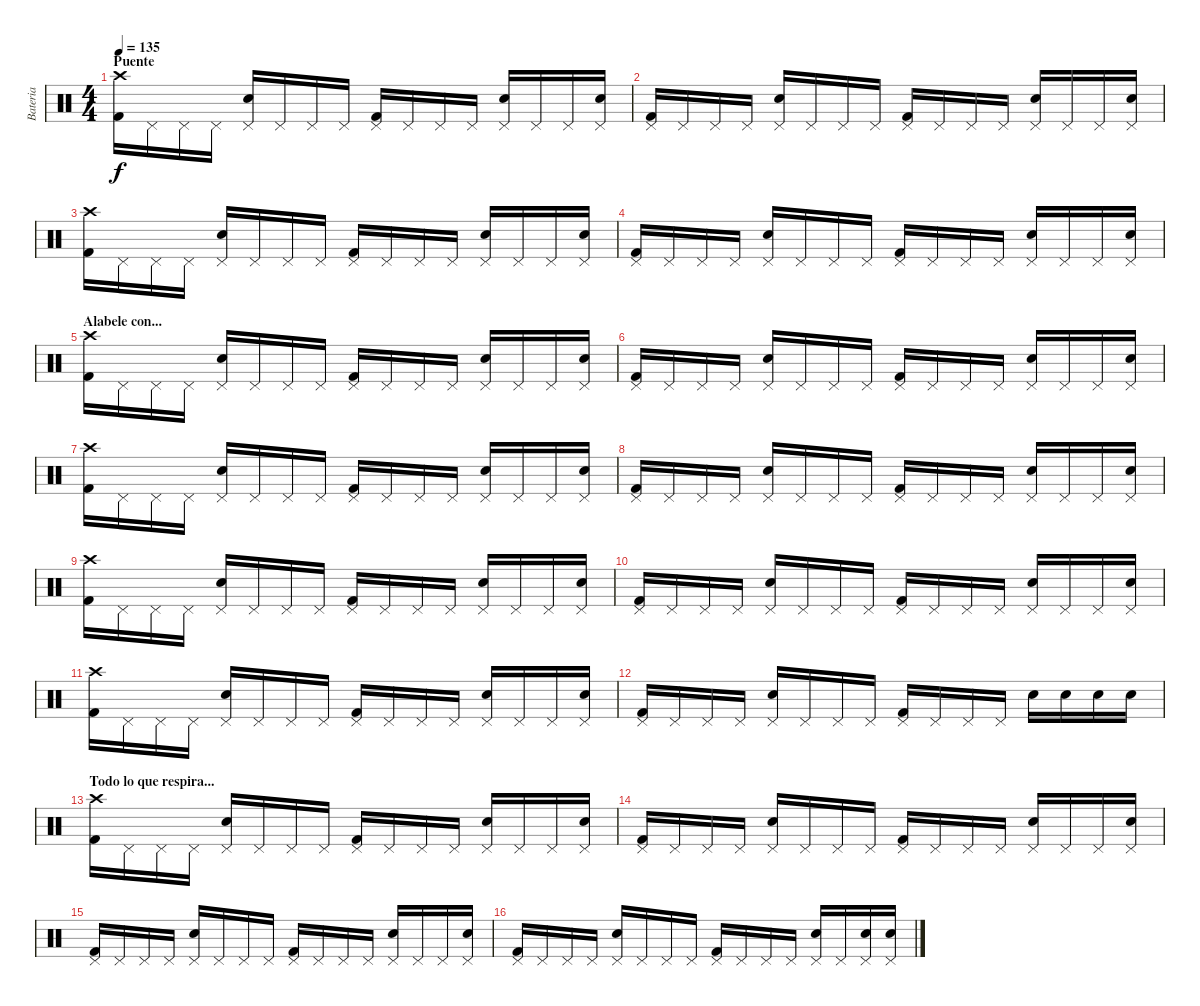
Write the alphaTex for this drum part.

\track ("Bateria" "Bateria") {instrument percussion}
\staff {score}
\articulation defaults
\ts (4 4)
\section ("" "Puente")
\tempo 135
\clef neutral
\ks c
("Crash high (hit)" "Kick (hit) 2").16{dy f} "Pedal Hi-Hat (hit)".16 "Pedal Hi-Hat (hit)".16 "Pedal Hi-Hat (hit)".16 ("Pedal Hi-Hat (hit)" "Electric Snare (hit)").16 "Pedal Hi-Hat (hit)".16 "Pedal Hi-Hat (hit)".16 "Pedal Hi-Hat (hit)".16 ("Pedal Hi-Hat (hit)" "Kick (hit) 2").16 "Pedal Hi-Hat (hit)".16 "Pedal Hi-Hat (hit)".16 "Pedal Hi-Hat (hit)".16 ("Pedal Hi-Hat (hit)" "Electric Snare (hit)").16 "Pedal Hi-Hat (hit)".16 "Pedal Hi-Hat (hit)".16 ("Pedal Hi-Hat (hit)" "Electric Snare (hit)").16 |
("Pedal Hi-Hat (hit)" "Kick (hit) 2").16 "Pedal Hi-Hat (hit)".16 "Pedal Hi-Hat (hit)".16 "Pedal Hi-Hat (hit)".16 ("Pedal Hi-Hat (hit)" "Electric Snare (hit)").16 "Pedal Hi-Hat (hit)".16 "Pedal Hi-Hat (hit)".16 "Pedal Hi-Hat (hit)".16 ("Pedal Hi-Hat (hit)" "Kick (hit) 2").16 "Pedal Hi-Hat (hit)".16 "Pedal Hi-Hat (hit)".16 "Pedal Hi-Hat (hit)".16 ("Pedal Hi-Hat (hit)" "Electric Snare (hit)").16 "Pedal Hi-Hat (hit)".16 "Pedal Hi-Hat (hit)".16 ("Pedal Hi-Hat (hit)" "Electric Snare (hit)").16 |
("Crash high (hit)" "Kick (hit) 2").16 "Pedal Hi-Hat (hit)".16 "Pedal Hi-Hat (hit)".16 "Pedal Hi-Hat (hit)".16 ("Pedal Hi-Hat (hit)" "Electric Snare (hit)").16 "Pedal Hi-Hat (hit)".16 "Pedal Hi-Hat (hit)".16 "Pedal Hi-Hat (hit)".16 ("Pedal Hi-Hat (hit)" "Kick (hit) 2").16 "Pedal Hi-Hat (hit)".16 "Pedal Hi-Hat (hit)".16 "Pedal Hi-Hat (hit)".16 ("Pedal Hi-Hat (hit)" "Electric Snare (hit)").16 "Pedal Hi-Hat (hit)".16 "Pedal Hi-Hat (hit)".16 ("Pedal Hi-Hat (hit)" "Electric Snare (hit)").16 |
("Pedal Hi-Hat (hit)" "Kick (hit) 2").16 "Pedal Hi-Hat (hit)".16 "Pedal Hi-Hat (hit)".16 "Pedal Hi-Hat (hit)".16 ("Pedal Hi-Hat (hit)" "Electric Snare (hit)").16 "Pedal Hi-Hat (hit)".16 "Pedal Hi-Hat (hit)".16 "Pedal Hi-Hat (hit)".16 ("Pedal Hi-Hat (hit)" "Kick (hit) 2").16 "Pedal Hi-Hat (hit)".16 "Pedal Hi-Hat (hit)".16 "Pedal Hi-Hat (hit)".16 ("Pedal Hi-Hat (hit)" "Electric Snare (hit)").16 "Pedal Hi-Hat (hit)".16 "Pedal Hi-Hat (hit)".16 ("Pedal Hi-Hat (hit)" "Electric Snare (hit)").16 |
\section ("" "Alabele con...")
("Crash high (hit)" "Kick (hit) 2").16 "Pedal Hi-Hat (hit)".16 "Pedal Hi-Hat (hit)".16 "Pedal Hi-Hat (hit)".16 ("Pedal Hi-Hat (hit)" "Electric Snare (hit)").16 "Pedal Hi-Hat (hit)".16 "Pedal Hi-Hat (hit)".16 "Pedal Hi-Hat (hit)".16 ("Pedal Hi-Hat (hit)" "Kick (hit) 2").16 "Pedal Hi-Hat (hit)".16 "Pedal Hi-Hat (hit)".16 "Pedal Hi-Hat (hit)".16 ("Pedal Hi-Hat (hit)" "Electric Snare (hit)").16 "Pedal Hi-Hat (hit)".16 "Pedal Hi-Hat (hit)".16 ("Pedal Hi-Hat (hit)" "Electric Snare (hit)").16 |
("Pedal Hi-Hat (hit)" "Kick (hit) 2").16 "Pedal Hi-Hat (hit)".16 "Pedal Hi-Hat (hit)".16 "Pedal Hi-Hat (hit)".16 ("Pedal Hi-Hat (hit)" "Electric Snare (hit)").16 "Pedal Hi-Hat (hit)".16 "Pedal Hi-Hat (hit)".16 "Pedal Hi-Hat (hit)".16 ("Pedal Hi-Hat (hit)" "Kick (hit) 2").16 "Pedal Hi-Hat (hit)".16 "Pedal Hi-Hat (hit)".16 "Pedal Hi-Hat (hit)".16 ("Pedal Hi-Hat (hit)" "Electric Snare (hit)").16 "Pedal Hi-Hat (hit)".16 "Pedal Hi-Hat (hit)".16 ("Pedal Hi-Hat (hit)" "Electric Snare (hit)").16 |
("Crash high (hit)" "Kick (hit) 2").16 "Pedal Hi-Hat (hit)".16 "Pedal Hi-Hat (hit)".16 "Pedal Hi-Hat (hit)".16 ("Pedal Hi-Hat (hit)" "Electric Snare (hit)").16 "Pedal Hi-Hat (hit)".16 "Pedal Hi-Hat (hit)".16 "Pedal Hi-Hat (hit)".16 ("Pedal Hi-Hat (hit)" "Kick (hit) 2").16 "Pedal Hi-Hat (hit)".16 "Pedal Hi-Hat (hit)".16 "Pedal Hi-Hat (hit)".16 ("Pedal Hi-Hat (hit)" "Electric Snare (hit)").16 "Pedal Hi-Hat (hit)".16 "Pedal Hi-Hat (hit)".16 ("Pedal Hi-Hat (hit)" "Electric Snare (hit)").16 |
("Pedal Hi-Hat (hit)" "Kick (hit) 2").16 "Pedal Hi-Hat (hit)".16 "Pedal Hi-Hat (hit)".16 "Pedal Hi-Hat (hit)".16 ("Pedal Hi-Hat (hit)" "Electric Snare (hit)").16 "Pedal Hi-Hat (hit)".16 "Pedal Hi-Hat (hit)".16 "Pedal Hi-Hat (hit)".16 ("Pedal Hi-Hat (hit)" "Kick (hit) 2").16 "Pedal Hi-Hat (hit)".16 "Pedal Hi-Hat (hit)".16 "Pedal Hi-Hat (hit)".16 ("Pedal Hi-Hat (hit)" "Electric Snare (hit)").16 "Pedal Hi-Hat (hit)".16 "Pedal Hi-Hat (hit)".16 ("Pedal Hi-Hat (hit)" "Electric Snare (hit)").16 |
("Crash high (hit)" "Kick (hit) 2").16 "Pedal Hi-Hat (hit)".16 "Pedal Hi-Hat (hit)".16 "Pedal Hi-Hat (hit)".16 ("Pedal Hi-Hat (hit)" "Electric Snare (hit)").16 "Pedal Hi-Hat (hit)".16 "Pedal Hi-Hat (hit)".16 "Pedal Hi-Hat (hit)".16 ("Pedal Hi-Hat (hit)" "Kick (hit) 2").16 "Pedal Hi-Hat (hit)".16 "Pedal Hi-Hat (hit)".16 "Pedal Hi-Hat (hit)".16 ("Pedal Hi-Hat (hit)" "Electric Snare (hit)").16 "Pedal Hi-Hat (hit)".16 "Pedal Hi-Hat (hit)".16 ("Pedal Hi-Hat (hit)" "Electric Snare (hit)").16 |
("Pedal Hi-Hat (hit)" "Kick (hit) 2").16 "Pedal Hi-Hat (hit)".16 "Pedal Hi-Hat (hit)".16 "Pedal Hi-Hat (hit)".16 ("Pedal Hi-Hat (hit)" "Electric Snare (hit)").16 "Pedal Hi-Hat (hit)".16 "Pedal Hi-Hat (hit)".16 "Pedal Hi-Hat (hit)".16 ("Pedal Hi-Hat (hit)" "Kick (hit) 2").16 "Pedal Hi-Hat (hit)".16 "Pedal Hi-Hat (hit)".16 "Pedal Hi-Hat (hit)".16 ("Pedal Hi-Hat (hit)" "Electric Snare (hit)").16 "Pedal Hi-Hat (hit)".16 "Pedal Hi-Hat (hit)".16 ("Pedal Hi-Hat (hit)" "Electric Snare (hit)").16 |
("Crash high (hit)" "Kick (hit) 2").16 "Pedal Hi-Hat (hit)".16 "Pedal Hi-Hat (hit)".16 "Pedal Hi-Hat (hit)".16 ("Pedal Hi-Hat (hit)" "Electric Snare (hit)").16 "Pedal Hi-Hat (hit)".16 "Pedal Hi-Hat (hit)".16 "Pedal Hi-Hat (hit)".16 ("Pedal Hi-Hat (hit)" "Kick (hit) 2").16 "Pedal Hi-Hat (hit)".16 "Pedal Hi-Hat (hit)".16 "Pedal Hi-Hat (hit)".16 ("Pedal Hi-Hat (hit)" "Electric Snare (hit)").16 "Pedal Hi-Hat (hit)".16 "Pedal Hi-Hat (hit)".16 ("Pedal Hi-Hat (hit)" "Electric Snare (hit)").16 |
("Pedal Hi-Hat (hit)" "Kick (hit) 2").16 "Pedal Hi-Hat (hit)".16 "Pedal Hi-Hat (hit)".16 "Pedal Hi-Hat (hit)".16 ("Pedal Hi-Hat (hit)" "Electric Snare (hit)").16 "Pedal Hi-Hat (hit)".16 "Pedal Hi-Hat (hit)".16 "Pedal Hi-Hat (hit)".16 ("Pedal Hi-Hat (hit)" "Kick (hit) 2").16 "Pedal Hi-Hat (hit)".16 "Pedal Hi-Hat (hit)".16 "Pedal Hi-Hat (hit)".16 "Electric Snare (hit)".16 "Electric Snare (hit)".16 "Electric Snare (hit)".16 "Electric Snare (hit)".16 |
\section ("" "Todo lo que respira...")
("Crash high (hit)" "Kick (hit) 2").16 "Pedal Hi-Hat (hit)".16 "Pedal Hi-Hat (hit)".16 "Pedal Hi-Hat (hit)".16 ("Pedal Hi-Hat (hit)" "Electric Snare (hit)").16 "Pedal Hi-Hat (hit)".16 "Pedal Hi-Hat (hit)".16 "Pedal Hi-Hat (hit)".16 ("Pedal Hi-Hat (hit)" "Kick (hit) 2").16 "Pedal Hi-Hat (hit)".16 "Pedal Hi-Hat (hit)".16 "Pedal Hi-Hat (hit)".16 ("Pedal Hi-Hat (hit)" "Electric Snare (hit)").16 "Pedal Hi-Hat (hit)".16 "Pedal Hi-Hat (hit)".16 ("Pedal Hi-Hat (hit)" "Electric Snare (hit)").16 |
("Pedal Hi-Hat (hit)" "Kick (hit) 2").16 "Pedal Hi-Hat (hit)".16 "Pedal Hi-Hat (hit)".16 "Pedal Hi-Hat (hit)".16 ("Pedal Hi-Hat (hit)" "Electric Snare (hit)").16 "Pedal Hi-Hat (hit)".16 "Pedal Hi-Hat (hit)".16 "Pedal Hi-Hat (hit)".16 ("Pedal Hi-Hat (hit)" "Kick (hit) 2").16 "Pedal Hi-Hat (hit)".16 "Pedal Hi-Hat (hit)".16 "Pedal Hi-Hat (hit)".16 ("Pedal Hi-Hat (hit)" "Electric Snare (hit)").16 "Pedal Hi-Hat (hit)".16 "Pedal Hi-Hat (hit)".16 ("Pedal Hi-Hat (hit)" "Electric Snare (hit)").16 |
("Pedal Hi-Hat (hit)" "Kick (hit) 2").16 "Pedal Hi-Hat (hit)".16 "Pedal Hi-Hat (hit)".16 "Pedal Hi-Hat (hit)".16 ("Pedal Hi-Hat (hit)" "Electric Snare (hit)").16 "Pedal Hi-Hat (hit)".16 "Pedal Hi-Hat (hit)".16 "Pedal Hi-Hat (hit)".16 ("Pedal Hi-Hat (hit)" "Kick (hit) 2").16 "Pedal Hi-Hat (hit)".16 "Pedal Hi-Hat (hit)".16 "Pedal Hi-Hat (hit)".16 ("Pedal Hi-Hat (hit)" "Electric Snare (hit)").16 "Pedal Hi-Hat (hit)".16 "Pedal Hi-Hat (hit)".16 ("Pedal Hi-Hat (hit)" "Electric Snare (hit)").16 |
("Pedal Hi-Hat (hit)" "Kick (hit) 2").16 "Pedal Hi-Hat (hit)".16 "Pedal Hi-Hat (hit)".16 "Pedal Hi-Hat (hit)".16 ("Pedal Hi-Hat (hit)" "Electric Snare (hit)").16 "Pedal Hi-Hat (hit)".16 "Pedal Hi-Hat (hit)".16 "Pedal Hi-Hat (hit)".16 ("Pedal Hi-Hat (hit)" "Kick (hit) 2").16 "Pedal Hi-Hat (hit)".16 "Pedal Hi-Hat (hit)".16 "Pedal Hi-Hat (hit)".16 ("Pedal Hi-Hat (hit)" "Electric Snare (hit)").16 "Pedal Hi-Hat (hit)".16 ("Pedal Hi-Hat (hit)" "Electric Snare (hit)").16 ("Pedal Hi-Hat (hit)" "Electric Snare (hit)").16
